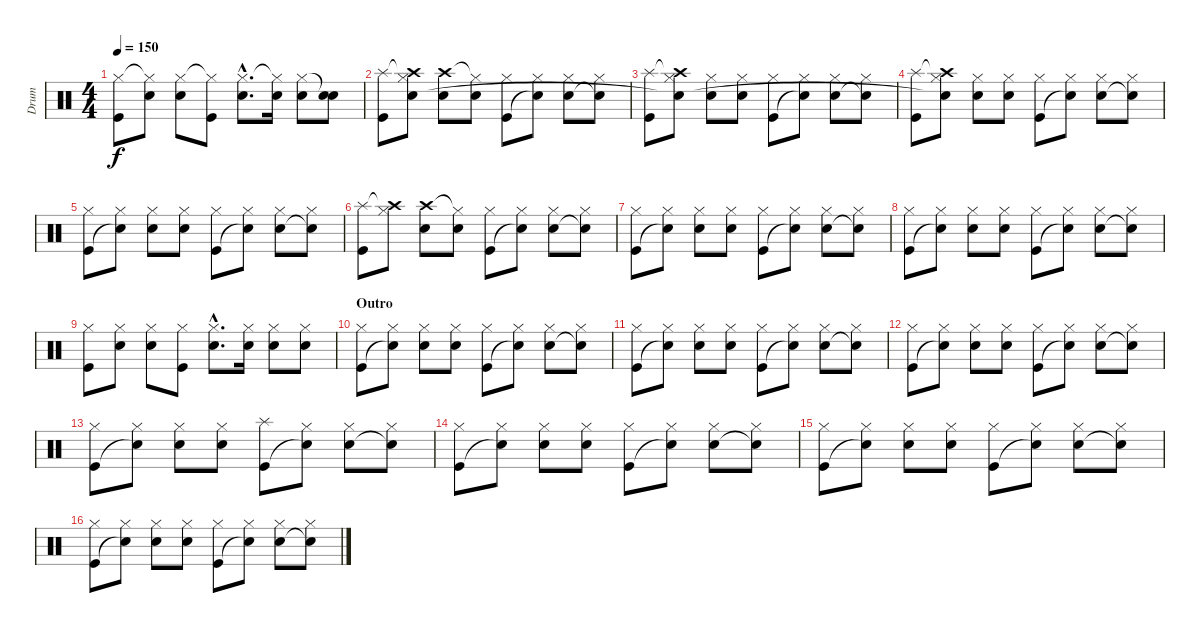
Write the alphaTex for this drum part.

\track ("Drum" "Drum") {instrument percussion}
\staff {score}
\articulation defaults
\ts (4 4)
\tempo 150
\clef neutral
\ks c
("Hi-Hat (closed)" "Kick (hit)").8{dy f} ("Hi-Hat (closed)"{t} "Snare (hit) 2").8 ("Hi-Hat (closed)" "Snare (hit) 2").8 ("Hi-Hat (closed)"{t} "Kick (hit)").8 ("Hi-Hat (closed)"{hac} "Snare (hit) 2"{hac}).8{d} ("Hi-Hat (closed)"{t} "Snare (hit) 2").16 ("Hi-Hat (closed)" "Snare (hit) 2").8 ("Snare (hit)"{t} "Snare (hit) 2").8 |
("Splash (hit)" "Kick (hit)").8 ("Crash high (hit)"{t} "Hi-Hat (closed)" "Snare (hit)").8 ("Crash high (hit)" "Snare (hit) 2").8 ("Hi-Hat (closed)"{t} "Snare (hit) 2").8 ("Hi-Hat (closed)" "Kick (hit)").8 ("Hi-Hat (closed)" "Snare (hit)"{t}).8 ("Hi-Hat (closed)" "Snare (hit) 2").8 ("Hi-Hat (closed)" "Snare (hit)"{t}).8 |
("Splash (hit)" "Kick (hit)").8 ("Crash high (hit)"{t} "Hi-Hat (closed)" "Snare (hit)"{t}).8 ("Hi-Hat (closed)" "Snare (hit) 2").8 ("Hi-Hat (closed)" "Snare (hit) 2").8 ("Hi-Hat (closed)" "Kick (hit)").8 ("Hi-Hat (closed)" "Snare (hit)"{t}).8 ("Hi-Hat (closed)" "Snare (hit) 2").8 ("Hi-Hat (closed)" "Snare (hit)"{t}).8 |
("Splash (hit)" "Kick (hit)").8 ("Crash high (hit)"{t} "Hi-Hat (closed)" "Snare (hit)"{t}).8 ("Hi-Hat (closed)" "Snare (hit) 2").8 ("Hi-Hat (closed)" "Snare (hit) 2").8 ("Hi-Hat (closed)" "Kick (hit)").8 ("Hi-Hat (closed)" "Snare (hit)"{t}).8 ("Hi-Hat (closed)" "Snare (hit) 2").8 ("Hi-Hat (closed)" "Snare (hit)"{t}).8 |
("Hi-Hat (closed)" "Kick (hit)").8 ("Hi-Hat (closed)" "Snare (hit)"{t}).8 ("Hi-Hat (closed)" "Snare (hit) 2").8 ("Hi-Hat (closed)" "Snare (hit) 2").8 ("Hi-Hat (closed)" "Kick (hit)").8 ("Hi-Hat (closed)" "Snare (hit)"{t}).8 ("Hi-Hat (closed)" "Snare (hit) 2").8 ("Hi-Hat (closed)" "Snare (hit)"{t}).8 |
("Splash (hit)" "Kick (hit)").8 ("Crash high (hit)"{t} "Hi-Hat (closed)").8 ("Crash high (hit)" "Snare (hit) 2").8 ("Hi-Hat (closed)"{t} "Snare (hit) 2").8 ("Hi-Hat (closed)" "Kick (hit)").8 ("Hi-Hat (closed)" "Snare (hit)"{t}).8 ("Hi-Hat (closed)" "Snare (hit) 2").8 ("Hi-Hat (closed)" "Snare (hit)"{t}).8 |
("Hi-Hat (closed)" "Kick (hit)").8 ("Hi-Hat (closed)" "Snare (hit)"{t}).8 ("Hi-Hat (closed)" "Snare (hit) 2").8 ("Hi-Hat (closed)" "Snare (hit) 2").8 ("Hi-Hat (closed)" "Kick (hit)").8 ("Hi-Hat (closed)" "Snare (hit)"{t}).8 ("Hi-Hat (closed)" "Snare (hit) 2").8 ("Hi-Hat (closed)" "Snare (hit)"{t}).8 |
("Hi-Hat (closed)" "Kick (hit)").8 ("Hi-Hat (closed)" "Snare (hit)"{t}).8 ("Hi-Hat (closed)" "Snare (hit) 2").8 ("Hi-Hat (closed)" "Snare (hit) 2").8 ("Hi-Hat (closed)" "Kick (hit)").8 ("Hi-Hat (closed)" "Snare (hit)"{t}).8 ("Hi-Hat (closed)" "Snare (hit) 2").8 ("Hi-Hat (closed)" "Snare (hit)"{t}).8 |
("Hi-Hat (closed)" "Kick (hit)").8 ("Hi-Hat (closed)" "Snare (hit) 2").8 ("Hi-Hat (closed)" "Snare (hit) 2").8 ("Hi-Hat (closed)" "Kick (hit)").8 ("Hi-Hat (closed)"{hac} "Snare (hit) 2"{hac}).8{d} ("Hi-Hat (closed)" "Snare (hit) 2").16 ("Hi-Hat (closed)" "Snare (hit) 2").8 ("Hi-Hat (closed)" "Snare (hit) 2").8 |
\section ("" "Outro")
("Hi-Hat (closed)" "Kick (hit)").8 ("Hi-Hat (closed)" "Snare (hit)"{t}).8 ("Hi-Hat (closed)" "Snare (hit) 2").8 ("Hi-Hat (closed)" "Snare (hit) 2").8 ("Hi-Hat (closed)" "Kick (hit)").8 ("Hi-Hat (closed)" "Snare (hit)"{t}).8 ("Hi-Hat (closed)" "Snare (hit) 2").8 ("Hi-Hat (closed)" "Snare (hit)"{t}).8 |
("Hi-Hat (closed)" "Kick (hit)").8 ("Hi-Hat (closed)" "Snare (hit)"{t}).8 ("Hi-Hat (closed)" "Snare (hit) 2").8 ("Hi-Hat (closed)" "Snare (hit) 2").8 ("Hi-Hat (closed)" "Kick (hit)").8 ("Hi-Hat (closed)" "Snare (hit)"{t}).8 ("Hi-Hat (closed)" "Snare (hit) 2").8 ("Hi-Hat (closed)" "Snare (hit)"{t}).8 |
("Hi-Hat (closed)" "Kick (hit)").8 ("Hi-Hat (closed)" "Snare (hit)"{t}).8 ("Hi-Hat (closed)" "Snare (hit) 2").8 ("Hi-Hat (closed)" "Snare (hit) 2").8 ("Hi-Hat (closed)" "Kick (hit)").8 ("Hi-Hat (closed)" "Snare (hit)"{t}).8 ("Hi-Hat (closed)" "Snare (hit) 2").8 ("Hi-Hat (closed)" "Snare (hit)"{t}).8 |
("Hi-Hat (closed)" "Kick (hit)").8 ("Hi-Hat (closed)" "Snare (hit)"{t}).8 ("Hi-Hat (closed)" "Snare (hit) 2").8 ("Hi-Hat (closed)" "Snare (hit) 2").8 ("Splash (hit)" "Kick (hit)").8 ("Hi-Hat (closed)" "Snare (hit)"{t}).8 ("Hi-Hat (closed)" "Snare (hit) 2").8 ("Hi-Hat (closed)" "Snare (hit)"{t}).8 |
("Hi-Hat (closed)" "Kick (hit)").8 ("Hi-Hat (closed)" "Snare (hit)"{t}).8 ("Hi-Hat (closed)" "Snare (hit) 2").8 ("Hi-Hat (closed)" "Snare (hit) 2").8 ("Hi-Hat (closed)" "Kick (hit)").8 ("Hi-Hat (closed)" "Snare (hit)"{t}).8 ("Hi-Hat (closed)" "Snare (hit) 2").8 ("Hi-Hat (closed)" "Snare (hit)"{t}).8 |
("Hi-Hat (closed)" "Kick (hit)").8 ("Hi-Hat (closed)" "Snare (hit)"{t}).8 ("Hi-Hat (closed)" "Snare (hit) 2").8 ("Hi-Hat (closed)" "Snare (hit) 2").8 ("Hi-Hat (closed)" "Kick (hit)").8 ("Hi-Hat (closed)" "Snare (hit)"{t}).8 ("Hi-Hat (closed)" "Snare (hit) 2").8 ("Hi-Hat (closed)" "Snare (hit)"{t}).8 |
("Hi-Hat (closed)" "Kick (hit)").8 ("Hi-Hat (closed)" "Snare (hit)"{t}).8 ("Hi-Hat (closed)" "Snare (hit) 2").8 ("Hi-Hat (closed)" "Snare (hit) 2").8 ("Hi-Hat (closed)" "Kick (hit)").8 ("Hi-Hat (closed)" "Snare (hit)"{t}).8 ("Hi-Hat (closed)" "Snare (hit) 2").8 ("Hi-Hat (closed)" "Snare (hit)"{t}).8
